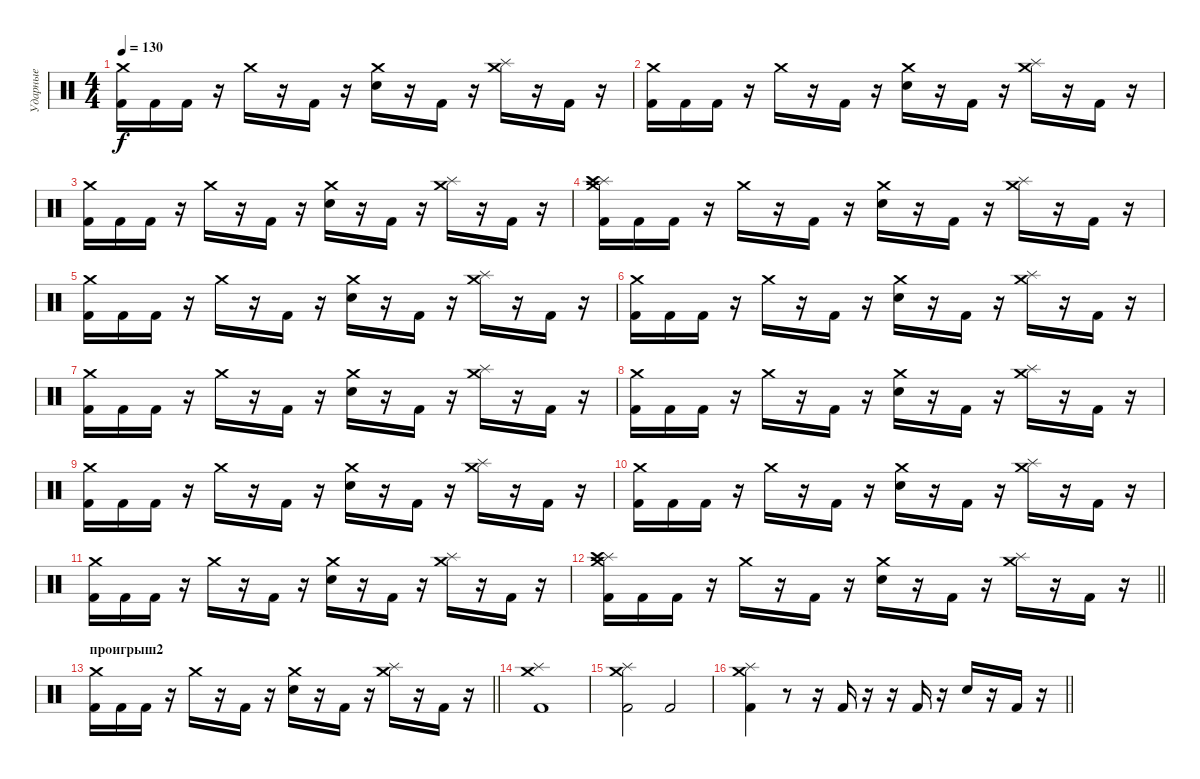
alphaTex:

\track ("Ударные" "Ударные") {instrument percussion}
\staff {score}
\articulation defaults
\ts (4 4)
\tempo 130
\clef neutral
\ks c
("Crash medium (hit)" "Kick (hit) 2").16{dy f} "Kick (hit) 2".16 "Kick (hit) 2".16 r.16 "Crash medium (hit)".16 r.16 "Kick (hit) 2".16 r.16 ("Crash medium (hit)" "Electric Snare (hit)").16 r.16 "Kick (hit) 2".16 r.16 ("Crash medium (hit)" "Splash (hit)").16 r.16 "Kick (hit) 2".16 r.16 |
("Crash medium (hit)" "Kick (hit) 2").16 "Kick (hit) 2".16 "Kick (hit) 2".16 r.16 "Crash medium (hit)".16 r.16 "Kick (hit) 2".16 r.16 ("Crash medium (hit)" "Electric Snare (hit)").16 r.16 "Kick (hit) 2".16 r.16 ("Crash medium (hit)" "Splash (hit)").16 r.16 "Kick (hit) 2".16 r.16 |
("Crash medium (hit)" "Kick (hit) 2").16 "Kick (hit) 2".16 "Kick (hit) 2".16 r.16 "Crash medium (hit)".16 r.16 "Kick (hit) 2".16 r.16 ("Crash medium (hit)" "Electric Snare (hit)").16 r.16 "Kick (hit) 2".16 r.16 ("Crash medium (hit)" "Splash (hit)").16 r.16 "Kick (hit) 2".16 r.16 |
("Crash medium (hit)" "Splash (hit)" "Crash high (hit)" "Kick (hit) 2").16 "Kick (hit) 2".16 "Kick (hit) 2".16 r.16 "Crash medium (hit)".16 r.16 "Kick (hit) 2".16 r.16 ("Crash medium (hit)" "Electric Snare (hit)").16 r.16 "Kick (hit) 2".16 r.16 ("Crash medium (hit)" "Splash (hit)").16 r.16 "Kick (hit) 2".16 r.16 |
("Crash medium (hit)" "Kick (hit) 2").16 "Kick (hit) 2".16 "Kick (hit) 2".16 r.16 "Crash medium (hit)".16 r.16 "Kick (hit) 2".16 r.16 ("Crash medium (hit)" "Electric Snare (hit)").16 r.16 "Kick (hit) 2".16 r.16 ("Crash medium (hit)" "Splash (hit)").16 r.16 "Kick (hit) 2".16 r.16 |
("Crash medium (hit)" "Kick (hit) 2").16 "Kick (hit) 2".16 "Kick (hit) 2".16 r.16 "Crash medium (hit)".16 r.16 "Kick (hit) 2".16 r.16 ("Crash medium (hit)" "Electric Snare (hit)").16 r.16 "Kick (hit) 2".16 r.16 ("Crash medium (hit)" "Splash (hit)").16 r.16 "Kick (hit) 2".16 r.16 |
("Crash medium (hit)" "Kick (hit) 2").16 "Kick (hit) 2".16 "Kick (hit) 2".16 r.16 "Crash medium (hit)".16 r.16 "Kick (hit) 2".16 r.16 ("Crash medium (hit)" "Electric Snare (hit)").16 r.16 "Kick (hit) 2".16 r.16 ("Crash medium (hit)" "Splash (hit)").16 r.16 "Kick (hit) 2".16 r.16 |
("Crash medium (hit)" "Kick (hit) 2").16 "Kick (hit) 2".16 "Kick (hit) 2".16 r.16 "Crash medium (hit)".16 r.16 "Kick (hit) 2".16 r.16 ("Crash medium (hit)" "Electric Snare (hit)").16 r.16 "Kick (hit) 2".16 r.16 ("Crash medium (hit)" "Splash (hit)").16 r.16 "Kick (hit) 2".16 r.16 |
("Crash medium (hit)" "Kick (hit) 2").16 "Kick (hit) 2".16 "Kick (hit) 2".16 r.16 "Crash medium (hit)".16 r.16 "Kick (hit) 2".16 r.16 ("Crash medium (hit)" "Electric Snare (hit)").16 r.16 "Kick (hit) 2".16 r.16 ("Crash medium (hit)" "Splash (hit)").16 r.16 "Kick (hit) 2".16 r.16 |
("Crash medium (hit)" "Kick (hit) 2").16 "Kick (hit) 2".16 "Kick (hit) 2".16 r.16 "Crash medium (hit)".16 r.16 "Kick (hit) 2".16 r.16 ("Crash medium (hit)" "Electric Snare (hit)").16 r.16 "Kick (hit) 2".16 r.16 ("Crash medium (hit)" "Splash (hit)").16 r.16 "Kick (hit) 2".16 r.16 |
("Crash medium (hit)" "Kick (hit) 2").16 "Kick (hit) 2".16 "Kick (hit) 2".16 r.16 "Crash medium (hit)".16 r.16 "Kick (hit) 2".16 r.16 ("Crash medium (hit)" "Electric Snare (hit)").16 r.16 "Kick (hit) 2".16 r.16 ("Crash medium (hit)" "Splash (hit)").16 r.16 "Kick (hit) 2".16 r.16 |
\barLineRight lightlight
("Crash medium (hit)" "Splash (hit)" "Crash high (hit)" "Kick (hit) 2").16 "Kick (hit) 2".16 "Kick (hit) 2".16 r.16 "Crash medium (hit)".16 r.16 "Kick (hit) 2".16 r.16 ("Crash medium (hit)" "Electric Snare (hit)").16 r.16 "Kick (hit) 2".16 r.16 ("Crash medium (hit)" "Splash (hit)").16 r.16 "Kick (hit) 2".16 r.16 |
\section ("" "проигрыш2")
\barLineRight lightlight
("Crash medium (hit)" "Kick (hit) 2").16 "Kick (hit) 2".16 "Kick (hit) 2".16 r.16 "Crash medium (hit)".16 r.16 "Kick (hit) 2".16 r.16 ("Crash medium (hit)" "Electric Snare (hit)").16 r.16 "Kick (hit) 2".16 r.16 ("Crash medium (hit)" "Splash (hit)").16 r.16 "Kick (hit) 2".16 r.16 |
("Crash medium (hit)" "Splash (hit)" "Kick (hit) 2").1 |
("Crash medium (hit)" "Splash (hit)" "Kick (hit) 2").2 "Kick (hit) 2".2 |
\barLineRight lightlight
("Crash medium (hit)" "Splash (hit)" "Kick (hit) 2").4 r.8 r.16 "Kick (hit) 2".16 r.16 r.16 "Kick (hit) 2".16 r.16 "Electric Snare (hit)".16 r.16 "Kick (hit) 2".16 r.16
